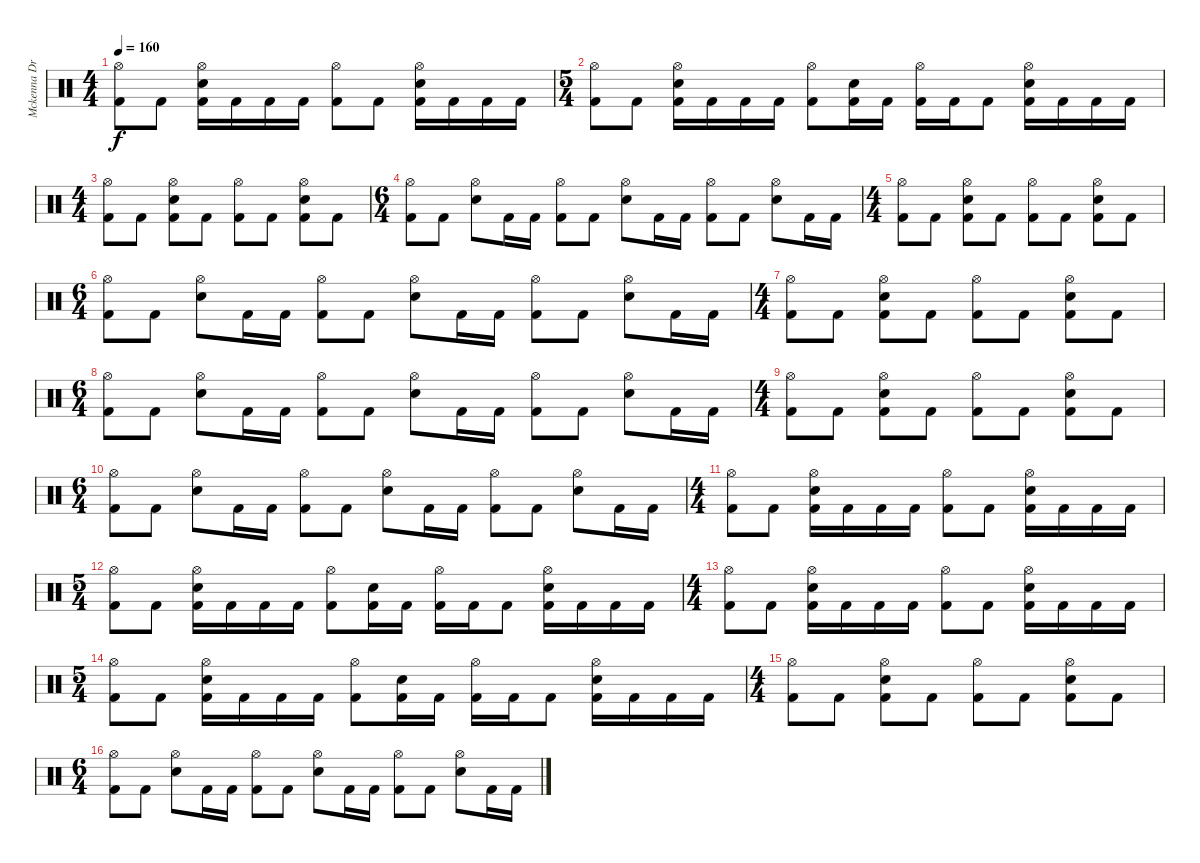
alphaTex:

\track ("Mckenna Drums" "Mckenna Dr") {instrument percussion}
\staff {score}
\articulation defaults
\ts (4 4)
\tempo 160
\clef neutral
\ks c
("Hi-Hat (open)" "Kick (hit) 2").8{dy f} "Kick (hit) 2".8 ("Hi-Hat (open)" "Electric Snare (hit)" "Kick (hit) 2").16 "Kick (hit) 2".16 "Kick (hit) 2".16 "Kick (hit) 2".16 ("Hi-Hat (open)" "Kick (hit) 2").8 "Kick (hit) 2".8 ("Hi-Hat (open)" "Electric Snare (hit)" "Kick (hit) 2").16 "Kick (hit) 2".16 "Kick (hit) 2".16 "Kick (hit) 2".16 |
\ts (5 4)
("Hi-Hat (open)" "Kick (hit) 2").8 "Kick (hit) 2".8 ("Hi-Hat (open)" "Electric Snare (hit)" "Kick (hit) 2").16 "Kick (hit) 2".16 "Kick (hit) 2".16 "Kick (hit) 2".16 ("Hi-Hat (open)" "Kick (hit) 2").8 ("Electric Snare (hit)" "Kick (hit) 2").16 "Kick (hit) 2".16 ("Hi-Hat (open)" "Kick (hit) 2").16 "Kick (hit) 2".16 "Kick (hit) 2".8 ("Hi-Hat (open)" "Electric Snare (hit)" "Kick (hit) 2").16 "Kick (hit) 2".16 "Kick (hit) 2".16 "Kick (hit) 2".16 |
\ts (4 4)
("Hi-Hat (open)" "Kick (hit) 2").8 "Kick (hit) 2".8 ("Hi-Hat (open)" "Electric Snare (hit)" "Kick (hit) 2").8 "Kick (hit) 2".8 ("Hi-Hat (open)" "Kick (hit) 2").8 "Kick (hit) 2".8 ("Hi-Hat (open)" "Electric Snare (hit)" "Kick (hit) 2").8 "Kick (hit) 2".8 |
\ts (6 4)
("Hi-Hat (open)" "Kick (hit) 2").8 "Kick (hit) 2".8 ("Hi-Hat (open)" "Electric Snare (hit)").8 "Kick (hit) 2".16 "Kick (hit) 2".16 ("Hi-Hat (open)" "Kick (hit) 2").8 "Kick (hit) 2".8 ("Hi-Hat (open)" "Electric Snare (hit)").8 "Kick (hit) 2".16 "Kick (hit) 2".16 ("Hi-Hat (open)" "Kick (hit) 2").8 "Kick (hit) 2".8 ("Hi-Hat (open)" "Electric Snare (hit)").8 "Kick (hit) 2".16 "Kick (hit) 2".16 |
\ts (4 4)
("Hi-Hat (open)" "Kick (hit) 2").8 "Kick (hit) 2".8 ("Hi-Hat (open)" "Electric Snare (hit)" "Kick (hit) 2").8 "Kick (hit) 2".8 ("Hi-Hat (open)" "Kick (hit) 2").8 "Kick (hit) 2".8 ("Hi-Hat (open)" "Electric Snare (hit)" "Kick (hit) 2").8 "Kick (hit) 2".8 |
\ts (6 4)
("Hi-Hat (open)" "Kick (hit) 2").8 "Kick (hit) 2".8 ("Hi-Hat (open)" "Electric Snare (hit)").8 "Kick (hit) 2".16 "Kick (hit) 2".16 ("Hi-Hat (open)" "Kick (hit) 2").8 "Kick (hit) 2".8 ("Hi-Hat (open)" "Electric Snare (hit)").8 "Kick (hit) 2".16 "Kick (hit) 2".16 ("Hi-Hat (open)" "Kick (hit) 2").8 "Kick (hit) 2".8 ("Hi-Hat (open)" "Electric Snare (hit)").8 "Kick (hit) 2".16 "Kick (hit) 2".16 |
\ts (4 4)
("Hi-Hat (open)" "Kick (hit) 2").8 "Kick (hit) 2".8 ("Hi-Hat (open)" "Electric Snare (hit)" "Kick (hit) 2").8 "Kick (hit) 2".8 ("Hi-Hat (open)" "Kick (hit) 2").8 "Kick (hit) 2".8 ("Hi-Hat (open)" "Electric Snare (hit)" "Kick (hit) 2").8 "Kick (hit) 2".8 |
\ts (6 4)
("Hi-Hat (open)" "Kick (hit) 2").8 "Kick (hit) 2".8 ("Hi-Hat (open)" "Electric Snare (hit)").8 "Kick (hit) 2".16 "Kick (hit) 2".16 ("Hi-Hat (open)" "Kick (hit) 2").8 "Kick (hit) 2".8 ("Hi-Hat (open)" "Electric Snare (hit)").8 "Kick (hit) 2".16 "Kick (hit) 2".16 ("Hi-Hat (open)" "Kick (hit) 2").8 "Kick (hit) 2".8 ("Hi-Hat (open)" "Electric Snare (hit)").8 "Kick (hit) 2".16 "Kick (hit) 2".16 |
\ts (4 4)
("Hi-Hat (open)" "Kick (hit) 2").8 "Kick (hit) 2".8 ("Hi-Hat (open)" "Electric Snare (hit)" "Kick (hit) 2").8 "Kick (hit) 2".8 ("Hi-Hat (open)" "Kick (hit) 2").8 "Kick (hit) 2".8 ("Hi-Hat (open)" "Electric Snare (hit)" "Kick (hit) 2").8 "Kick (hit) 2".8 |
\ts (6 4)
("Hi-Hat (open)" "Kick (hit) 2").8 "Kick (hit) 2".8 ("Hi-Hat (open)" "Electric Snare (hit)").8 "Kick (hit) 2".16 "Kick (hit) 2".16 ("Hi-Hat (open)" "Kick (hit) 2").8 "Kick (hit) 2".8 ("Hi-Hat (open)" "Electric Snare (hit)").8 "Kick (hit) 2".16 "Kick (hit) 2".16 ("Hi-Hat (open)" "Kick (hit) 2").8 "Kick (hit) 2".8 ("Hi-Hat (open)" "Electric Snare (hit)").8 "Kick (hit) 2".16 "Kick (hit) 2".16 |
\ts (4 4)
("Hi-Hat (open)" "Kick (hit) 2").8 "Kick (hit) 2".8 ("Hi-Hat (open)" "Electric Snare (hit)" "Kick (hit) 2").16 "Kick (hit) 2".16 "Kick (hit) 2".16 "Kick (hit) 2".16 ("Hi-Hat (open)" "Kick (hit) 2").8 "Kick (hit) 2".8 ("Hi-Hat (open)" "Electric Snare (hit)" "Kick (hit) 2").16 "Kick (hit) 2".16 "Kick (hit) 2".16 "Kick (hit) 2".16 |
\ts (5 4)
("Hi-Hat (open)" "Kick (hit) 2").8 "Kick (hit) 2".8 ("Hi-Hat (open)" "Electric Snare (hit)" "Kick (hit) 2").16 "Kick (hit) 2".16 "Kick (hit) 2".16 "Kick (hit) 2".16 ("Hi-Hat (open)" "Kick (hit) 2").8 ("Electric Snare (hit)" "Kick (hit) 2").16 "Kick (hit) 2".16 ("Hi-Hat (open)" "Kick (hit) 2").16 "Kick (hit) 2".16 "Kick (hit) 2".8 ("Hi-Hat (open)" "Electric Snare (hit)" "Kick (hit) 2").16 "Kick (hit) 2".16 "Kick (hit) 2".16 "Kick (hit) 2".16 |
\ts (4 4)
("Hi-Hat (open)" "Kick (hit) 2").8 "Kick (hit) 2".8 ("Hi-Hat (open)" "Electric Snare (hit)" "Kick (hit) 2").16 "Kick (hit) 2".16 "Kick (hit) 2".16 "Kick (hit) 2".16 ("Hi-Hat (open)" "Kick (hit) 2").8 "Kick (hit) 2".8 ("Hi-Hat (open)" "Electric Snare (hit)" "Kick (hit) 2").16 "Kick (hit) 2".16 "Kick (hit) 2".16 "Kick (hit) 2".16 |
\ts (5 4)
("Hi-Hat (open)" "Kick (hit) 2").8 "Kick (hit) 2".8 ("Hi-Hat (open)" "Electric Snare (hit)" "Kick (hit) 2").16 "Kick (hit) 2".16 "Kick (hit) 2".16 "Kick (hit) 2".16 ("Hi-Hat (open)" "Kick (hit) 2").8 ("Electric Snare (hit)" "Kick (hit) 2").16 "Kick (hit) 2".16 ("Hi-Hat (open)" "Kick (hit) 2").16 "Kick (hit) 2".16 "Kick (hit) 2".8 ("Hi-Hat (open)" "Electric Snare (hit)" "Kick (hit) 2").16 "Kick (hit) 2".16 "Kick (hit) 2".16 "Kick (hit) 2".16 |
\ts (4 4)
("Hi-Hat (open)" "Kick (hit) 2").8 "Kick (hit) 2".8 ("Hi-Hat (open)" "Electric Snare (hit)" "Kick (hit) 2").8 "Kick (hit) 2".8 ("Hi-Hat (open)" "Kick (hit) 2").8 "Kick (hit) 2".8 ("Hi-Hat (open)" "Electric Snare (hit)" "Kick (hit) 2").8 "Kick (hit) 2".8 |
\ts (6 4)
("Hi-Hat (open)" "Kick (hit) 2").8 "Kick (hit) 2".8 ("Hi-Hat (open)" "Electric Snare (hit)").8 "Kick (hit) 2".16 "Kick (hit) 2".16 ("Hi-Hat (open)" "Kick (hit) 2").8 "Kick (hit) 2".8 ("Hi-Hat (open)" "Electric Snare (hit)").8 "Kick (hit) 2".16 "Kick (hit) 2".16 ("Hi-Hat (open)" "Kick (hit) 2").8 "Kick (hit) 2".8 ("Hi-Hat (open)" "Electric Snare (hit)").8 "Kick (hit) 2".16 "Kick (hit) 2".16
